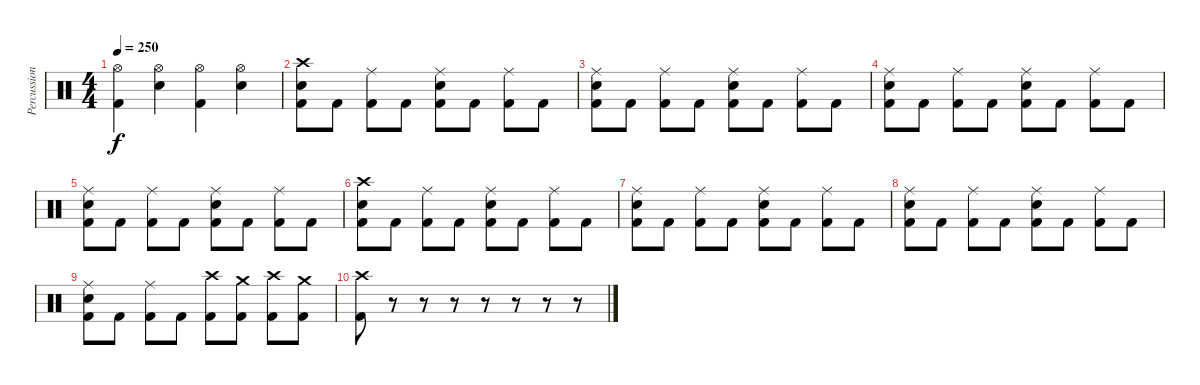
\track ("Percussion" "Percussion") {instrument percussion}
\staff {score}
\articulation defaults
\ts (4 4)
\tempo 250
\clef neutral
\ks c
("Hi-Hat (open)" "Kick (hit) 2").4{dy f} ("Hi-Hat (open)" "Electric Snare (hit)").4 ("Hi-Hat (open)" "Kick (hit) 2").4 ("Hi-Hat (open)" "Electric Snare (hit)").4 |
("Crash high (hit)" "Kick (hit) 2" "Electric Snare (hit)").8 "Kick (hit) 2".8 ("Ride (middle)" "Kick (hit) 2").8 "Kick (hit) 2".8 ("Ride (middle)" "Kick (hit) 2" "Electric Snare (hit)").8 "Kick (hit) 2".8 ("Ride (middle)" "Kick (hit) 2").8 "Kick (hit) 2".8 |
("Ride (middle)" "Kick (hit) 2" "Electric Snare (hit)").8 "Kick (hit) 2".8 ("Ride (middle)" "Kick (hit) 2").8 "Kick (hit) 2".8 ("Ride (middle)" "Kick (hit) 2" "Electric Snare (hit)").8 "Kick (hit) 2".8 ("Ride (middle)" "Kick (hit) 2").8 "Kick (hit) 2".8 |
("Ride (middle)" "Kick (hit) 2" "Electric Snare (hit)").8 "Kick (hit) 2".8 ("Ride (middle)" "Kick (hit) 2").8 "Kick (hit) 2".8 ("Ride (middle)" "Kick (hit) 2" "Electric Snare (hit)").8 "Kick (hit) 2".8 ("Ride (middle)" "Kick (hit) 2").8 "Kick (hit) 2".8 |
("Ride (middle)" "Kick (hit) 2" "Electric Snare (hit)").8 "Kick (hit) 2".8 ("Ride (middle)" "Kick (hit) 2").8 "Kick (hit) 2".8 ("Ride (middle)" "Kick (hit) 2" "Electric Snare (hit)").8 "Kick (hit) 2".8 ("Ride (middle)" "Kick (hit) 2").8 "Kick (hit) 2".8 |
("Crash high (hit)" "Kick (hit) 2" "Electric Snare (hit)").8 "Kick (hit) 2".8 ("Ride (middle)" "Kick (hit) 2").8 "Kick (hit) 2".8 ("Ride (middle)" "Kick (hit) 2" "Electric Snare (hit)").8 "Kick (hit) 2".8 ("Ride (middle)" "Kick (hit) 2").8 "Kick (hit) 2".8 |
("Ride (middle)" "Kick (hit) 2" "Electric Snare (hit)").8 "Kick (hit) 2".8 ("Ride (middle)" "Kick (hit) 2").8 "Kick (hit) 2".8 ("Ride (middle)" "Kick (hit) 2" "Electric Snare (hit)").8 "Kick (hit) 2".8 ("Ride (middle)" "Kick (hit) 2").8 "Kick (hit) 2".8 |
("Ride (middle)" "Kick (hit) 2" "Electric Snare (hit)").8 "Kick (hit) 2".8 ("Ride (middle)" "Kick (hit) 2").8 "Kick (hit) 2".8 ("Ride (middle)" "Kick (hit) 2" "Electric Snare (hit)").8 "Kick (hit) 2".8 ("Ride (middle)" "Kick (hit) 2").8 "Kick (hit) 2".8 |
("Ride (middle)" "Kick (hit) 2" "Electric Snare (hit)").8 "Kick (hit) 2".8 ("Ride (middle)" "Kick (hit) 2").8 "Kick (hit) 2".8 ("Crash high (hit)" "Kick (hit) 2").8 ("Crash medium (hit)" "Kick (hit) 2").8 ("Crash high (hit)" "Kick (hit) 2").8 ("Crash medium (hit)" "Kick (hit) 2").8 |
("Crash high (hit)" "Kick (hit) 2").8 r.8{volume 0} r.8 r.8 r.8 r.8 r.8 r.8
